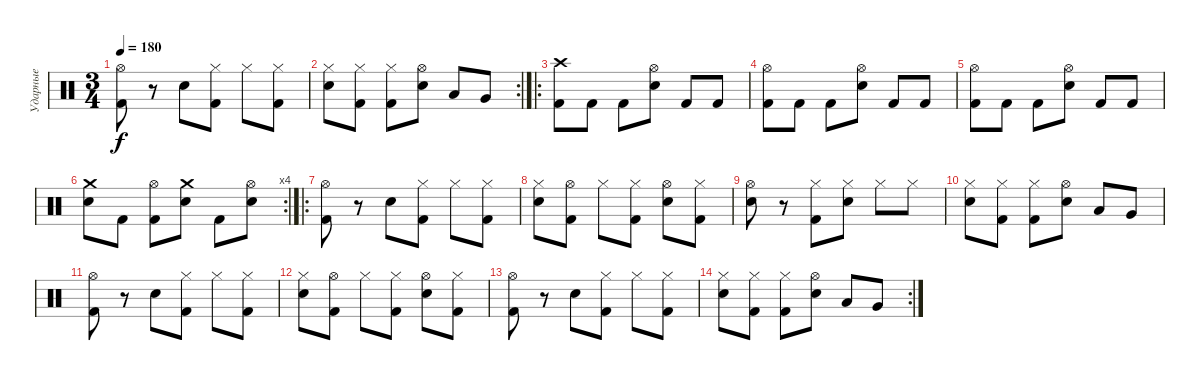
\track ("Ударные" "Ударные") {instrument percussion}
\staff {score}
\articulation defaults
\ts (3 4)
\tempo 180
\clef neutral
\ks c
("Hi-Hat (open)" "Kick (hit) 2").8{dy f} r.8 "Electric Snare (hit)".8 ("Hi-Hat (closed)" "Kick (hit) 2").8 "Hi-Hat (closed)".8 ("Hi-Hat (closed)" "Kick (hit) 2").8 |
\rc 2
("Hi-Hat (closed)" "Electric Snare (hit)").8 ("Hi-Hat (closed)" "Kick (hit) 2").8 ("Hi-Hat (closed)" "Kick (hit) 2").8 ("Hi-Hat (open)" "Electric Snare (hit)").8 "Low Tom (hit)".8 "Very Low Tom (hit)".8 |
\ro
("Crash high (hit)" "Kick (hit) 2").8 "Kick (hit) 2".8 "Kick (hit) 2".8 ("Hi-Hat (open)" "Electric Snare (hit)").8 "Kick (hit) 2".8 "Kick (hit) 2".8 |
("Hi-Hat (open)" "Kick (hit) 2").8 "Kick (hit) 2".8 "Kick (hit) 2".8 ("Hi-Hat (open)" "Electric Snare (hit)").8 "Kick (hit) 2".8 "Kick (hit) 2".8 |
("Hi-Hat (open)" "Kick (hit) 2").8 "Kick (hit) 2".8 "Kick (hit) 2".8 ("Hi-Hat (open)" "Electric Snare (hit)").8 "Kick (hit) 2".8 "Kick (hit) 2".8 |
\rc 4
("Crash medium (hit)" "Electric Snare (hit)").8 "Kick (hit) 2".8 ("Hi-Hat (open)" "Kick (hit) 2").8 ("Crash medium (hit)" "Electric Snare (hit)").8 "Kick (hit) 2".8 ("Hi-Hat (open)" "Electric Snare (hit)").8 |
\ro
("Hi-Hat (open)" "Kick (hit) 2").8 r.8 "Electric Snare (hit)".8 ("Hi-Hat (closed)" "Kick (hit) 2").8 "Hi-Hat (closed)".8 ("Hi-Hat (closed)" "Kick (hit) 2").8 |
("Hi-Hat (closed)" "Electric Snare (hit)").8 ("Hi-Hat (open)" "Kick (hit) 2").8 "Hi-Hat (closed)".8 ("Hi-Hat (closed)" "Kick (hit) 2").8 ("Hi-Hat (open)" "Electric Snare (hit)").8 ("Hi-Hat (closed)" "Kick (hit) 2").8 |
("Hi-Hat (open)" "Electric Snare (hit)").8 r.8 ("Hi-Hat (closed)" "Kick (hit) 2").8 ("Hi-Hat (closed)" "Electric Snare (hit)").8 "Hi-Hat (closed)".8 "Hi-Hat (closed)".8 |
("Hi-Hat (closed)" "Electric Snare (hit)").8 ("Hi-Hat (closed)" "Kick (hit) 2").8 ("Hi-Hat (closed)" "Kick (hit) 2").8 ("Hi-Hat (open)" "Electric Snare (hit)").8 "Low Tom (hit)".8 "Very Low Tom (hit)".8 |
("Hi-Hat (open)" "Kick (hit) 2").8 r.8 "Electric Snare (hit)".8 ("Hi-Hat (closed)" "Kick (hit) 2").8 "Hi-Hat (closed)".8 ("Hi-Hat (closed)" "Kick (hit) 2").8 |
("Hi-Hat (closed)" "Electric Snare (hit)").8 ("Hi-Hat (open)" "Kick (hit) 2").8 "Hi-Hat (closed)".8 ("Hi-Hat (closed)" "Kick (hit) 2").8 ("Hi-Hat (open)" "Electric Snare (hit)").8 ("Hi-Hat (closed)" "Kick (hit) 2").8 |
("Hi-Hat (open)" "Kick (hit) 2").8 r.8 "Electric Snare (hit)".8 ("Hi-Hat (closed)" "Kick (hit) 2").8 "Hi-Hat (closed)".8 ("Hi-Hat (closed)" "Kick (hit) 2").8 |
\rc 2
("Hi-Hat (closed)" "Electric Snare (hit)").8 ("Hi-Hat (closed)" "Kick (hit) 2").8 ("Hi-Hat (closed)" "Kick (hit) 2").8 ("Hi-Hat (open)" "Electric Snare (hit)").8 "Low Tom (hit)".8 "Very Low Tom (hit)".8
